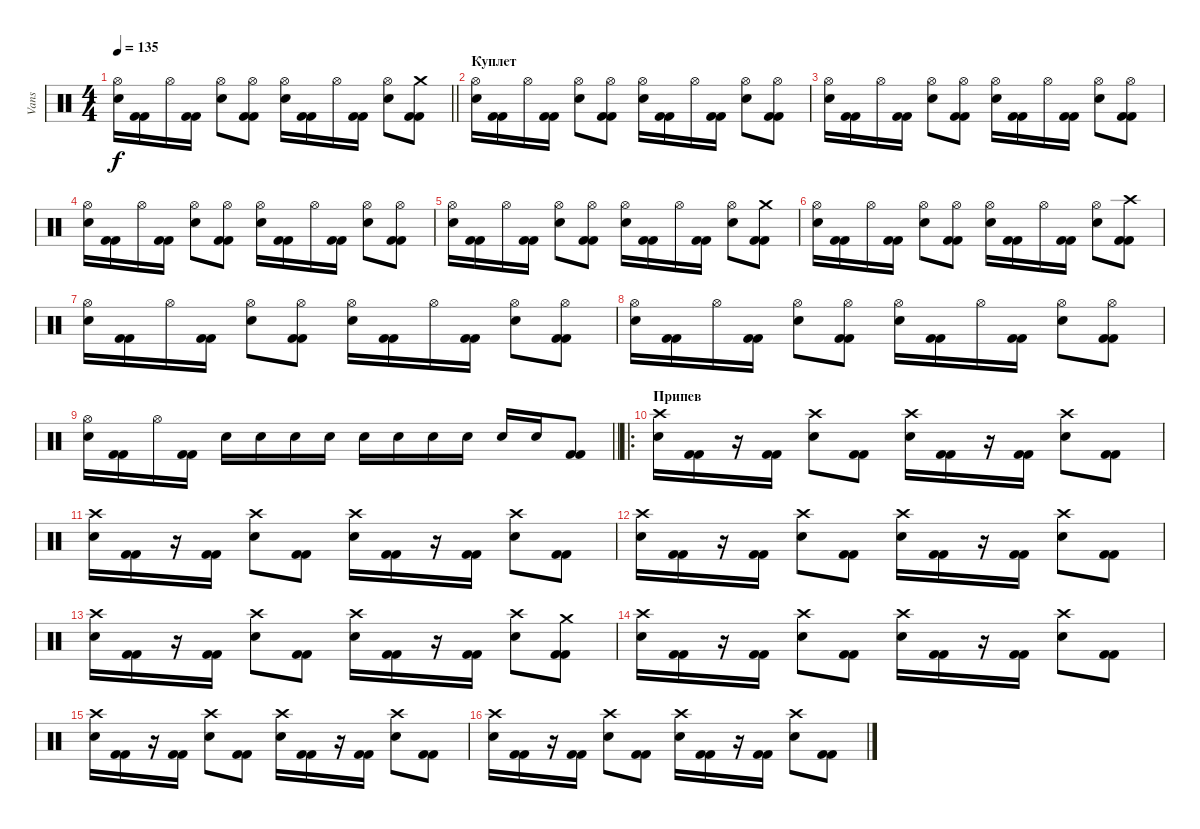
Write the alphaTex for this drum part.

\track ("Vans" "Vans") {instrument percussion}
\staff {score}
\articulation defaults
\ts (4 4)
\tempo 135
\clef neutral
\barLineRight lightlight
\ks c
("Hi-Hat (open)" "Electric Snare (hit)").16{dy f} ("Kick (hit) 2" "Kick (hit) 2").16 "Hi-Hat (open)".16 ("Kick (hit) 2" "Kick (hit) 2").16 ("Hi-Hat (open)" "Electric Snare (hit)").8 ("Hi-Hat (open)" "Kick (hit) 2" "Kick (hit) 2").8 ("Hi-Hat (open)" "Electric Snare (hit)").16 ("Kick (hit) 2" "Kick (hit) 2").16 "Hi-Hat (open)".16 ("Kick (hit) 2" "Kick (hit) 2").16 ("Hi-Hat (open)" "Electric Snare (hit)").8 ("Crash medium (hit)" "Kick (hit) 2" "Kick (hit) 2").8 |
\section ("" "Куплет")
("Hi-Hat (open)" "Electric Snare (hit)").16 ("Kick (hit) 2" "Kick (hit) 2").16 "Hi-Hat (open)".16 ("Kick (hit) 2" "Kick (hit) 2").16 ("Hi-Hat (open)" "Electric Snare (hit)").8 ("Hi-Hat (open)" "Kick (hit) 2" "Kick (hit) 2").8 ("Hi-Hat (open)" "Electric Snare (hit)").16 ("Kick (hit) 2" "Kick (hit) 2").16 "Hi-Hat (open)".16 ("Kick (hit) 2" "Kick (hit) 2").16 ("Hi-Hat (open)" "Electric Snare (hit)").8 ("Hi-Hat (open)" "Kick (hit) 2" "Kick (hit) 2").8 |
("Hi-Hat (open)" "Electric Snare (hit)").16 ("Kick (hit) 2" "Kick (hit) 2").16 "Hi-Hat (open)".16 ("Kick (hit) 2" "Kick (hit) 2").16 ("Hi-Hat (open)" "Electric Snare (hit)").8 ("Hi-Hat (open)" "Kick (hit) 2" "Kick (hit) 2").8 ("Hi-Hat (open)" "Electric Snare (hit)").16 ("Kick (hit) 2" "Kick (hit) 2").16 "Hi-Hat (open)".16 ("Kick (hit) 2" "Kick (hit) 2").16 ("Hi-Hat (open)" "Electric Snare (hit)").8 ("Hi-Hat (open)" "Kick (hit) 2" "Kick (hit) 2").8 |
("Hi-Hat (open)" "Electric Snare (hit)").16 ("Kick (hit) 2" "Kick (hit) 2").16 "Hi-Hat (open)".16 ("Kick (hit) 2" "Kick (hit) 2").16 ("Hi-Hat (open)" "Electric Snare (hit)").8 ("Hi-Hat (open)" "Kick (hit) 2" "Kick (hit) 2").8 ("Hi-Hat (open)" "Electric Snare (hit)").16 ("Kick (hit) 2" "Kick (hit) 2").16 "Hi-Hat (open)".16 ("Kick (hit) 2" "Kick (hit) 2").16 ("Hi-Hat (open)" "Electric Snare (hit)").8 ("Hi-Hat (open)" "Kick (hit) 2" "Kick (hit) 2").8 |
("Hi-Hat (open)" "Electric Snare (hit)").16 ("Kick (hit) 2" "Kick (hit) 2").16 "Hi-Hat (open)".16 ("Kick (hit) 2" "Kick (hit) 2").16 ("Hi-Hat (open)" "Electric Snare (hit)").8 ("Hi-Hat (open)" "Kick (hit) 2" "Kick (hit) 2").8 ("Hi-Hat (open)" "Electric Snare (hit)").16 ("Kick (hit) 2" "Kick (hit) 2").16 "Hi-Hat (open)".16 ("Kick (hit) 2" "Kick (hit) 2").16 ("Hi-Hat (open)" "Electric Snare (hit)").8 ("Crash medium (hit)" "Kick (hit) 2" "Kick (hit) 2").8 |
("Hi-Hat (open)" "Electric Snare (hit)").16 ("Kick (hit) 2" "Kick (hit) 2").16 "Hi-Hat (open)".16 ("Kick (hit) 2" "Kick (hit) 2").16 ("Hi-Hat (open)" "Electric Snare (hit)").8 ("Hi-Hat (open)" "Kick (hit) 2" "Kick (hit) 2").8 ("Hi-Hat (open)" "Electric Snare (hit)").16 ("Kick (hit) 2" "Kick (hit) 2").16 "Hi-Hat (open)".16 ("Kick (hit) 2" "Kick (hit) 2").16 ("Hi-Hat (open)" "Electric Snare (hit)").8 ("Crash high (hit)" "Kick (hit) 2" "Kick (hit) 2").8 |
("Hi-Hat (open)" "Electric Snare (hit)").16 ("Kick (hit) 2" "Kick (hit) 2").16 "Hi-Hat (open)".16 ("Kick (hit) 2" "Kick (hit) 2").16 ("Hi-Hat (open)" "Electric Snare (hit)").8 ("Hi-Hat (open)" "Kick (hit) 2" "Kick (hit) 2").8 ("Hi-Hat (open)" "Electric Snare (hit)").16 ("Kick (hit) 2" "Kick (hit) 2").16 "Hi-Hat (open)".16 ("Kick (hit) 2" "Kick (hit) 2").16 ("Hi-Hat (open)" "Electric Snare (hit)").8 ("Hi-Hat (open)" "Kick (hit) 2" "Kick (hit) 2").8 |
("Hi-Hat (open)" "Electric Snare (hit)").16 ("Kick (hit) 2" "Kick (hit) 2").16 "Hi-Hat (open)".16 ("Kick (hit) 2" "Kick (hit) 2").16 ("Hi-Hat (open)" "Electric Snare (hit)").8 ("Hi-Hat (open)" "Kick (hit) 2" "Kick (hit) 2").8 ("Hi-Hat (open)" "Electric Snare (hit)").16 ("Kick (hit) 2" "Kick (hit) 2").16 "Hi-Hat (open)".16 ("Kick (hit) 2" "Kick (hit) 2").16 ("Hi-Hat (open)" "Electric Snare (hit)").8 ("Hi-Hat (open)" "Kick (hit) 2" "Kick (hit) 2").8 |
\barLineRight lightlight
("Hi-Hat (open)" "Electric Snare (hit)").16 ("Kick (hit) 2" "Kick (hit) 2").16 "Hi-Hat (open)".16 ("Kick (hit) 2" "Kick (hit) 2").16 "Electric Snare (hit)".16 "Electric Snare (hit)".16 "Electric Snare (hit)".16 "Electric Snare (hit)".16 "Electric Snare (hit)".16 "Electric Snare (hit)".16 "Electric Snare (hit)".16 "Electric Snare (hit)".16 "Electric Snare (hit)".16 "Electric Snare (hit)".16 ("Kick (hit) 2" "Kick (hit) 2").8 |
\ro
\section ("" "Припев")
("Crash high (hit)" "Electric Snare (hit)").16 ("Kick (hit) 2" "Kick (hit) 2").16 r.16 ("Kick (hit) 2" "Kick (hit) 2").16 ("Crash high (hit)" "Electric Snare (hit)").8 ("Kick (hit) 2" "Kick (hit) 2").8 ("Crash high (hit)" "Electric Snare (hit)").16 ("Kick (hit) 2" "Kick (hit) 2").16 r.16 ("Kick (hit) 2" "Kick (hit) 2").16 ("Crash high (hit)" "Electric Snare (hit)").8 ("Kick (hit) 2" "Kick (hit) 2").8 |
("Crash high (hit)" "Electric Snare (hit)").16 ("Kick (hit) 2" "Kick (hit) 2").16 r.16 ("Kick (hit) 2" "Kick (hit) 2").16 ("Crash high (hit)" "Electric Snare (hit)").8 ("Kick (hit) 2" "Kick (hit) 2").8 ("Crash high (hit)" "Electric Snare (hit)").16 ("Kick (hit) 2" "Kick (hit) 2").16 r.16 ("Kick (hit) 2" "Kick (hit) 2").16 ("Crash high (hit)" "Electric Snare (hit)").8 ("Kick (hit) 2" "Kick (hit) 2").8 |
("Crash high (hit)" "Electric Snare (hit)").16 ("Kick (hit) 2" "Kick (hit) 2").16 r.16 ("Kick (hit) 2" "Kick (hit) 2").16 ("Crash high (hit)" "Electric Snare (hit)").8 ("Kick (hit) 2" "Kick (hit) 2").8 ("Crash high (hit)" "Electric Snare (hit)").16 ("Kick (hit) 2" "Kick (hit) 2").16 r.16 ("Kick (hit) 2" "Kick (hit) 2").16 ("Crash high (hit)" "Electric Snare (hit)").8 ("Kick (hit) 2" "Kick (hit) 2").8 |
("Crash high (hit)" "Electric Snare (hit)").16 ("Kick (hit) 2" "Kick (hit) 2").16 r.16 ("Kick (hit) 2" "Kick (hit) 2").16 ("Crash high (hit)" "Electric Snare (hit)").8 ("Kick (hit) 2" "Kick (hit) 2").8 ("Crash high (hit)" "Electric Snare (hit)").16 ("Kick (hit) 2" "Kick (hit) 2").16 r.16 ("Kick (hit) 2" "Kick (hit) 2").16 ("Crash high (hit)" "Electric Snare (hit)").8 ("Crash medium (hit)" "Kick (hit) 2" "Kick (hit) 2").8 |
("Crash high (hit)" "Electric Snare (hit)").16 ("Kick (hit) 2" "Kick (hit) 2").16 r.16 ("Kick (hit) 2" "Kick (hit) 2").16 ("Crash high (hit)" "Electric Snare (hit)").8 ("Kick (hit) 2" "Kick (hit) 2").8 ("Crash high (hit)" "Electric Snare (hit)").16 ("Kick (hit) 2" "Kick (hit) 2").16 r.16 ("Kick (hit) 2" "Kick (hit) 2").16 ("Crash high (hit)" "Electric Snare (hit)").8 ("Kick (hit) 2" "Kick (hit) 2").8 |
("Crash high (hit)" "Electric Snare (hit)").16 ("Kick (hit) 2" "Kick (hit) 2").16 r.16 ("Kick (hit) 2" "Kick (hit) 2").16 ("Crash high (hit)" "Electric Snare (hit)").8 ("Kick (hit) 2" "Kick (hit) 2").8 ("Crash high (hit)" "Electric Snare (hit)").16 ("Kick (hit) 2" "Kick (hit) 2").16 r.16 ("Kick (hit) 2" "Kick (hit) 2").16 ("Crash high (hit)" "Electric Snare (hit)").8 ("Kick (hit) 2" "Kick (hit) 2").8 |
("Crash high (hit)" "Electric Snare (hit)").16 ("Kick (hit) 2" "Kick (hit) 2").16 r.16 ("Kick (hit) 2" "Kick (hit) 2").16 ("Crash high (hit)" "Electric Snare (hit)").8 ("Kick (hit) 2" "Kick (hit) 2").8 ("Crash high (hit)" "Electric Snare (hit)").16 ("Kick (hit) 2" "Kick (hit) 2").16 r.16 ("Kick (hit) 2" "Kick (hit) 2").16 ("Crash high (hit)" "Electric Snare (hit)").8 ("Kick (hit) 2" "Kick (hit) 2").8
